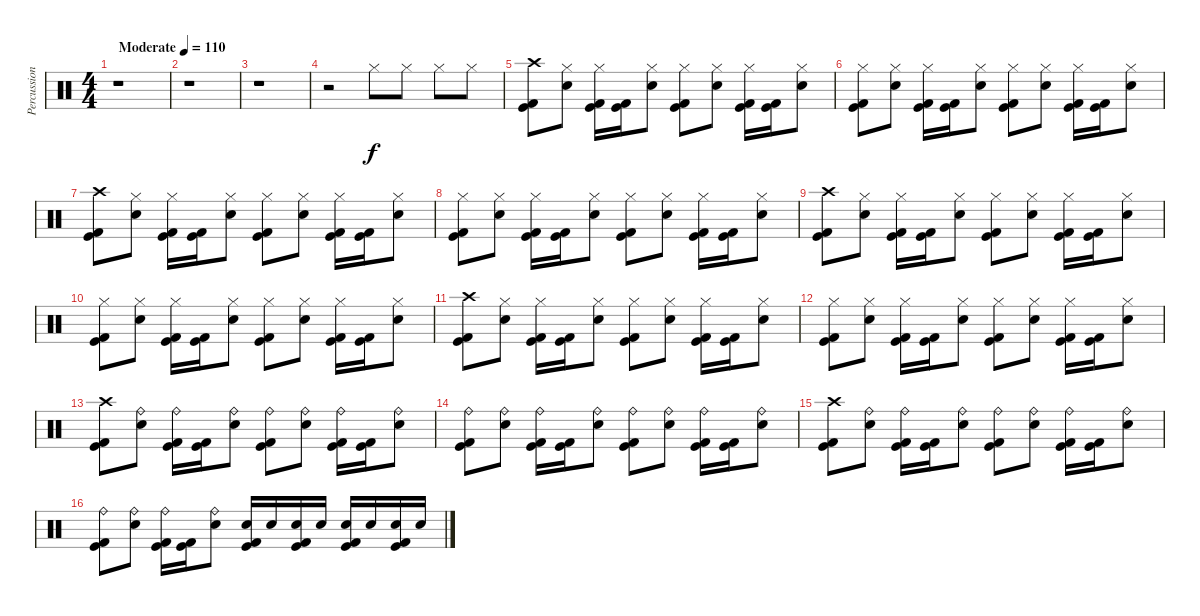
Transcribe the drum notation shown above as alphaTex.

\track ("Percussion" "Percussion") {instrument percussion}
\staff {score}
\articulation defaults
\ts (4 4)
\tempo (110 "Moderate")
\clef neutral
\ks c
r.1{dy f} |
r.1 |
r.1 |
r.2 "Hi-Hat (closed)".8 "Hi-Hat (closed)".8 "Hi-Hat (closed)".8 "Hi-Hat (closed)".8 |
("Crash high (hit)" "Kick (hit)" "Kick (hit) 2").8 ("Hi-Hat (closed)" "Snare (hit) 2").8 ("Hi-Hat (closed)" "Kick (hit)" "Kick (hit) 2").16 ("Kick (hit)" "Kick (hit) 2").16 ("Hi-Hat (closed)" "Snare (hit) 2").8 ("Hi-Hat (closed)" "Kick (hit)" "Kick (hit) 2").8 ("Hi-Hat (closed)" "Snare (hit) 2").8 ("Hi-Hat (closed)" "Kick (hit)" "Kick (hit) 2").16 ("Kick (hit)" "Kick (hit) 2").16 ("Hi-Hat (closed)" "Snare (hit) 2").8 |
("Hi-Hat (closed)" "Kick (hit)" "Kick (hit) 2").8 ("Hi-Hat (closed)" "Snare (hit) 2").8 ("Hi-Hat (closed)" "Kick (hit)" "Kick (hit) 2").16 ("Kick (hit)" "Kick (hit) 2").16 ("Hi-Hat (closed)" "Snare (hit) 2").8 ("Hi-Hat (closed)" "Kick (hit)" "Kick (hit) 2").8 ("Hi-Hat (closed)" "Snare (hit) 2").8 ("Hi-Hat (closed)" "Kick (hit)" "Kick (hit) 2").16 ("Kick (hit)" "Kick (hit) 2").16 ("Hi-Hat (closed)" "Snare (hit) 2").8 |
("Crash high (hit)" "Kick (hit)" "Kick (hit) 2").8 ("Hi-Hat (closed)" "Snare (hit) 2").8 ("Hi-Hat (closed)" "Kick (hit)" "Kick (hit) 2").16 ("Kick (hit)" "Kick (hit) 2").16 ("Hi-Hat (closed)" "Snare (hit) 2").8 ("Hi-Hat (closed)" "Kick (hit)" "Kick (hit) 2").8 ("Hi-Hat (closed)" "Snare (hit) 2").8 ("Hi-Hat (closed)" "Kick (hit)" "Kick (hit) 2").16 ("Kick (hit)" "Kick (hit) 2").16 ("Hi-Hat (closed)" "Snare (hit) 2").8 |
("Hi-Hat (closed)" "Kick (hit)" "Kick (hit) 2").8 ("Hi-Hat (closed)" "Snare (hit) 2").8 ("Hi-Hat (closed)" "Kick (hit)" "Kick (hit) 2").16 ("Kick (hit)" "Kick (hit) 2").16 ("Hi-Hat (closed)" "Snare (hit) 2").8 ("Hi-Hat (closed)" "Kick (hit)" "Kick (hit) 2").8 ("Hi-Hat (closed)" "Snare (hit) 2").8 ("Hi-Hat (closed)" "Kick (hit)" "Kick (hit) 2").16 ("Kick (hit)" "Kick (hit) 2").16 ("Hi-Hat (closed)" "Snare (hit) 2").8 |
("Crash high (hit)" "Kick (hit)" "Kick (hit) 2").8 ("Hi-Hat (closed)" "Snare (hit) 2").8 ("Hi-Hat (closed)" "Kick (hit)" "Kick (hit) 2").16 ("Kick (hit)" "Kick (hit) 2").16 ("Hi-Hat (closed)" "Snare (hit) 2").8 ("Hi-Hat (closed)" "Kick (hit)" "Kick (hit) 2").8 ("Hi-Hat (closed)" "Snare (hit) 2").8 ("Hi-Hat (closed)" "Kick (hit)" "Kick (hit) 2").16 ("Kick (hit)" "Kick (hit) 2").16 ("Hi-Hat (closed)" "Snare (hit) 2").8 |
("Hi-Hat (closed)" "Kick (hit)" "Kick (hit) 2").8 ("Hi-Hat (closed)" "Snare (hit) 2").8 ("Hi-Hat (closed)" "Kick (hit)" "Kick (hit) 2").16 ("Kick (hit)" "Kick (hit) 2").16 ("Hi-Hat (closed)" "Snare (hit) 2").8 ("Hi-Hat (closed)" "Kick (hit)" "Kick (hit) 2").8 ("Hi-Hat (closed)" "Snare (hit) 2").8 ("Hi-Hat (closed)" "Kick (hit)" "Kick (hit) 2").16 ("Kick (hit)" "Kick (hit) 2").16 ("Hi-Hat (closed)" "Snare (hit) 2").8 |
("Crash high (hit)" "Kick (hit)" "Kick (hit) 2").8 ("Hi-Hat (closed)" "Snare (hit) 2").8 ("Hi-Hat (closed)" "Kick (hit)" "Kick (hit) 2").16 ("Kick (hit)" "Kick (hit) 2").16 ("Hi-Hat (closed)" "Snare (hit) 2").8 ("Hi-Hat (closed)" "Kick (hit)" "Kick (hit) 2").8 ("Hi-Hat (closed)" "Snare (hit) 2").8 ("Hi-Hat (closed)" "Kick (hit)" "Kick (hit) 2").16 ("Kick (hit)" "Kick (hit) 2").16 ("Hi-Hat (closed)" "Snare (hit) 2").8 |
("Hi-Hat (closed)" "Kick (hit)" "Kick (hit) 2").8 ("Hi-Hat (closed)" "Snare (hit) 2").8 ("Hi-Hat (closed)" "Kick (hit)" "Kick (hit) 2").16 ("Kick (hit)" "Kick (hit) 2").16 ("Hi-Hat (closed)" "Snare (hit) 2").8 ("Hi-Hat (closed)" "Kick (hit)" "Kick (hit) 2").8 ("Hi-Hat (closed)" "Snare (hit) 2").8 ("Hi-Hat (closed)" "Kick (hit)" "Kick (hit) 2").16 ("Kick (hit)" "Kick (hit) 2").16 ("Hi-Hat (closed)" "Snare (hit) 2").8 |
("Crash high (hit)" "Kick (hit)" "Kick (hit) 2").8 ("Ride (bell)" "Snare (hit) 2").8 ("Ride (bell)" "Kick (hit)" "Kick (hit) 2").16 ("Kick (hit)" "Kick (hit) 2").16 ("Ride (bell)" "Snare (hit) 2").8 ("Ride (bell)" "Kick (hit)" "Kick (hit) 2").8 ("Ride (bell)" "Snare (hit) 2").8 ("Ride (bell)" "Kick (hit)" "Kick (hit) 2").16 ("Kick (hit)" "Kick (hit) 2").16 ("Ride (bell)" "Snare (hit) 2").8 |
("Ride (bell)" "Kick (hit)" "Kick (hit) 2").8 ("Ride (bell)" "Snare (hit) 2").8 ("Ride (bell)" "Kick (hit)" "Kick (hit) 2").16 ("Kick (hit)" "Kick (hit) 2").16 ("Ride (bell)" "Snare (hit) 2").8 ("Ride (bell)" "Kick (hit)" "Kick (hit) 2").8 ("Ride (bell)" "Snare (hit) 2").8 ("Ride (bell)" "Kick (hit)" "Kick (hit) 2").16 ("Kick (hit)" "Kick (hit) 2").16 ("Ride (bell)" "Snare (hit) 2").8 |
("Crash high (hit)" "Kick (hit)" "Kick (hit) 2").8 ("Ride (bell)" "Snare (hit) 2").8 ("Ride (bell)" "Kick (hit)" "Kick (hit) 2").16 ("Kick (hit)" "Kick (hit) 2").16 ("Ride (bell)" "Snare (hit) 2").8 ("Ride (bell)" "Kick (hit)" "Kick (hit) 2").8 ("Ride (bell)" "Snare (hit) 2").8 ("Ride (bell)" "Kick (hit)" "Kick (hit) 2").16 ("Kick (hit)" "Kick (hit) 2").16 ("Ride (bell)" "Snare (hit) 2").8 |
("Ride (bell)" "Kick (hit)" "Kick (hit) 2").8 ("Ride (bell)" "Snare (hit) 2").8 ("Ride (bell)" "Kick (hit)" "Kick (hit) 2").16 ("Kick (hit)" "Kick (hit) 2").16 ("Ride (bell)" "Snare (hit) 2").8 ("Snare (hit) 2" "Kick (hit)" "Kick (hit) 2").16 "Snare (hit) 2".16 ("Snare (hit) 2" "Kick (hit)" "Kick (hit) 2").16 "Snare (hit) 2".16 ("Snare (hit) 2" "Kick (hit)" "Kick (hit) 2").16 "Snare (hit) 2".16 ("Snare (hit) 2" "Kick (hit)" "Kick (hit) 2").16 "Snare (hit) 2".16
